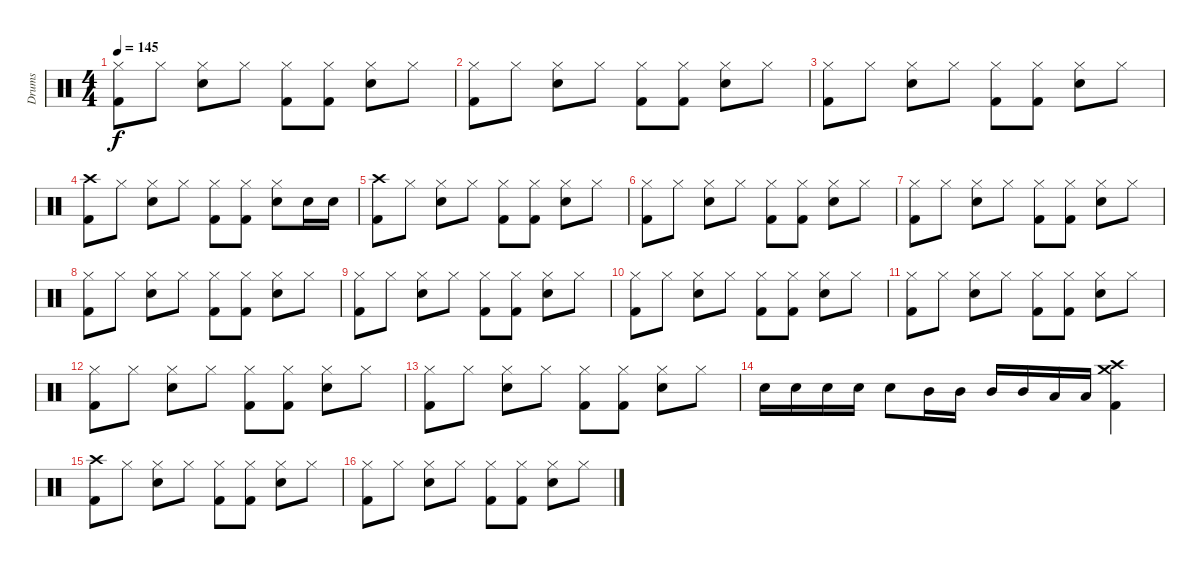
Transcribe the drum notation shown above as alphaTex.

\track ("Drums" "Drums") {instrument percussion}
\staff {score}
\articulation defaults
\ts (4 4)
\tempo 145
\clef neutral
\ks c
("Hi-Hat (closed)" "Kick (hit) 2").8{dy f} "Hi-Hat (closed)".8 ("Hi-Hat (closed)" "Electric Snare (hit)").8 "Hi-Hat (closed)".8 ("Hi-Hat (closed)" "Kick (hit) 2").8 ("Hi-Hat (closed)" "Kick (hit) 2").8 ("Hi-Hat (closed)" "Electric Snare (hit)").8 "Hi-Hat (closed)".8 |
("Hi-Hat (closed)" "Kick (hit) 2").8 "Hi-Hat (closed)".8 ("Hi-Hat (closed)" "Electric Snare (hit)").8 "Hi-Hat (closed)".8 ("Hi-Hat (closed)" "Kick (hit) 2").8 ("Hi-Hat (closed)" "Kick (hit) 2").8 ("Hi-Hat (closed)" "Electric Snare (hit)").8 "Hi-Hat (closed)".8 |
("Hi-Hat (closed)" "Kick (hit) 2").8 "Hi-Hat (closed)".8 ("Hi-Hat (closed)" "Electric Snare (hit)").8 "Hi-Hat (closed)".8 ("Hi-Hat (closed)" "Kick (hit) 2").8 ("Hi-Hat (closed)" "Kick (hit) 2").8 ("Hi-Hat (closed)" "Electric Snare (hit)").8 "Hi-Hat (closed)".8 |
("Crash high (hit)" "Kick (hit) 2").8 "Hi-Hat (closed)".8 ("Hi-Hat (closed)" "Electric Snare (hit)").8 "Hi-Hat (closed)".8 ("Hi-Hat (closed)" "Kick (hit) 2").8 ("Hi-Hat (closed)" "Kick (hit) 2").8 ("Hi-Hat (closed)" "Electric Snare (hit)").8 "Electric Snare (hit)".16 "Electric Snare (hit)".16 |
("Crash high (hit)" "Kick (hit) 2").8 "Hi-Hat (closed)".8 ("Hi-Hat (closed)" "Electric Snare (hit)").8 "Hi-Hat (closed)".8 ("Hi-Hat (closed)" "Kick (hit) 2").8 ("Hi-Hat (closed)" "Kick (hit) 2").8 ("Hi-Hat (closed)" "Electric Snare (hit)").8 "Hi-Hat (closed)".8 |
("Hi-Hat (closed)" "Kick (hit) 2").8 "Hi-Hat (closed)".8 ("Hi-Hat (closed)" "Electric Snare (hit)").8 "Hi-Hat (closed)".8 ("Hi-Hat (closed)" "Kick (hit) 2").8 ("Hi-Hat (closed)" "Kick (hit) 2").8 ("Hi-Hat (closed)" "Electric Snare (hit)").8 "Hi-Hat (closed)".8 |
("Hi-Hat (closed)" "Kick (hit) 2").8 "Hi-Hat (closed)".8 ("Hi-Hat (closed)" "Electric Snare (hit)").8 "Hi-Hat (closed)".8 ("Hi-Hat (closed)" "Kick (hit) 2").8 ("Hi-Hat (closed)" "Kick (hit) 2").8 ("Hi-Hat (closed)" "Electric Snare (hit)").8 "Hi-Hat (closed)".8 |
("Hi-Hat (closed)" "Kick (hit) 2").8 "Hi-Hat (closed)".8 ("Hi-Hat (closed)" "Electric Snare (hit)").8 "Hi-Hat (closed)".8 ("Hi-Hat (closed)" "Kick (hit) 2").8 ("Hi-Hat (closed)" "Kick (hit) 2").8 ("Hi-Hat (closed)" "Electric Snare (hit)").8 "Hi-Hat (closed)".8 |
("Hi-Hat (closed)" "Kick (hit) 2").8 "Hi-Hat (closed)".8 ("Hi-Hat (closed)" "Electric Snare (hit)").8 "Hi-Hat (closed)".8 ("Hi-Hat (closed)" "Kick (hit) 2").8 ("Hi-Hat (closed)" "Kick (hit) 2").8 ("Hi-Hat (closed)" "Electric Snare (hit)").8 "Hi-Hat (closed)".8 |
("Hi-Hat (closed)" "Kick (hit) 2").8 "Hi-Hat (closed)".8 ("Hi-Hat (closed)" "Electric Snare (hit)").8 "Hi-Hat (closed)".8 ("Hi-Hat (closed)" "Kick (hit) 2").8 ("Hi-Hat (closed)" "Kick (hit) 2").8 ("Hi-Hat (closed)" "Electric Snare (hit)").8 "Hi-Hat (closed)".8 |
("Hi-Hat (closed)" "Kick (hit) 2").8 "Hi-Hat (closed)".8 ("Hi-Hat (closed)" "Electric Snare (hit)").8 "Hi-Hat (closed)".8 ("Hi-Hat (closed)" "Kick (hit) 2").8 ("Hi-Hat (closed)" "Kick (hit) 2").8 ("Hi-Hat (closed)" "Electric Snare (hit)").8 "Hi-Hat (closed)".8 |
("Hi-Hat (closed)" "Kick (hit) 2").8 "Hi-Hat (closed)".8 ("Hi-Hat (closed)" "Electric Snare (hit)").8 "Hi-Hat (closed)".8 ("Hi-Hat (closed)" "Kick (hit) 2").8 ("Hi-Hat (closed)" "Kick (hit) 2").8 ("Hi-Hat (closed)" "Electric Snare (hit)").8 "Hi-Hat (closed)".8 |
("Hi-Hat (closed)" "Kick (hit) 2").8 "Hi-Hat (closed)".8 ("Hi-Hat (closed)" "Electric Snare (hit)").8 "Hi-Hat (closed)".8 ("Hi-Hat (closed)" "Kick (hit) 2").8 ("Hi-Hat (closed)" "Kick (hit) 2").8 ("Hi-Hat (closed)" "Electric Snare (hit)").8 "Hi-Hat (closed)".8 |
"Electric Snare (hit)".16 "Electric Snare (hit)".16 "Electric Snare (hit)".16 "Electric Snare (hit)".16 "Electric Snare (hit)".8 "Mid Tom (hit)".16 "Mid Tom (hit)".16 "Mid Tom (hit)".16 "Mid Tom (hit)".16 "Low Floor Tom (hit)".16 "Low Floor Tom (hit)".16 ("Crash medium (hit)" "Crash high (hit)" "Kick (hit) 2").4 |
("Crash high (hit)" "Kick (hit) 2").8 "Hi-Hat (closed)".8 ("Hi-Hat (closed)" "Electric Snare (hit)").8 "Hi-Hat (closed)".8 ("Hi-Hat (closed)" "Kick (hit) 2").8 ("Hi-Hat (closed)" "Kick (hit) 2").8 ("Hi-Hat (closed)" "Electric Snare (hit)").8 "Hi-Hat (closed)".8 |
("Hi-Hat (closed)" "Kick (hit) 2").8 "Hi-Hat (closed)".8 ("Hi-Hat (closed)" "Electric Snare (hit)").8 "Hi-Hat (closed)".8 ("Hi-Hat (closed)" "Kick (hit) 2").8 ("Hi-Hat (closed)" "Kick (hit) 2").8 ("Hi-Hat (closed)" "Electric Snare (hit)").8 "Hi-Hat (closed)".8
